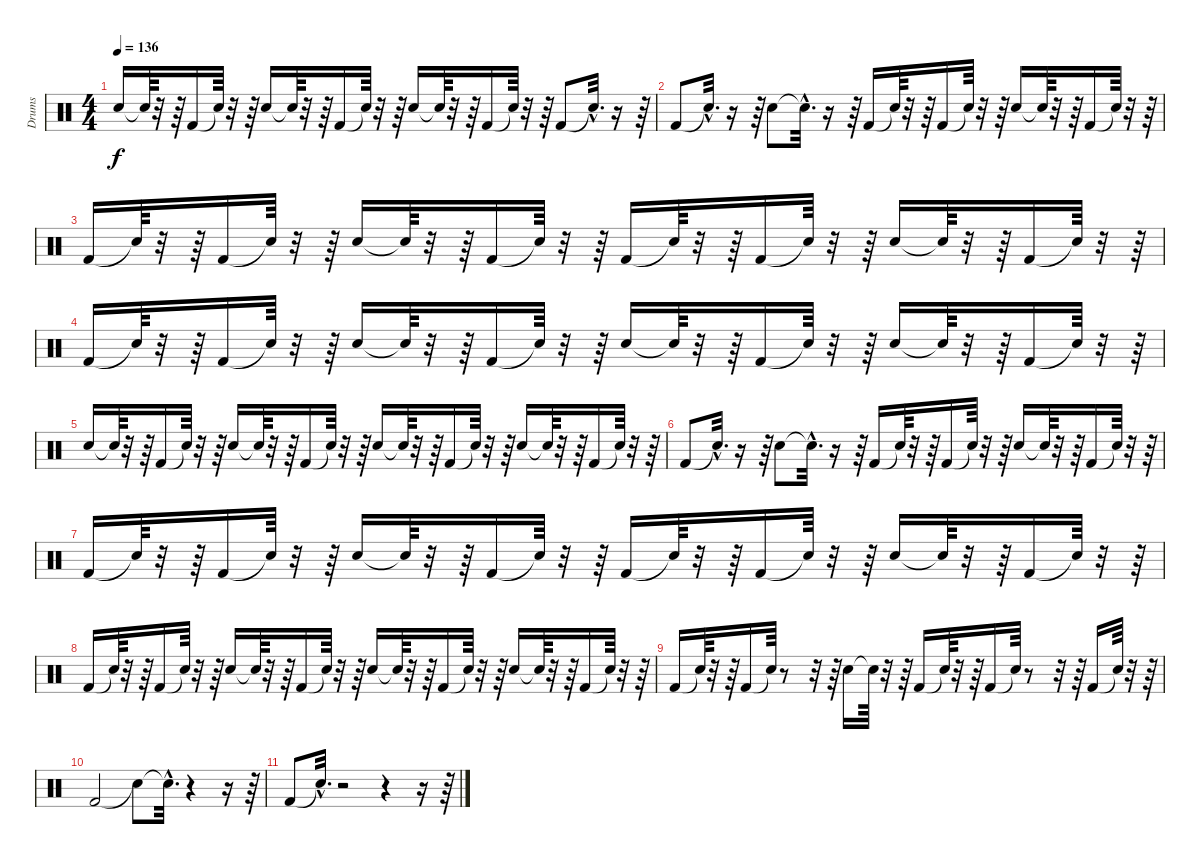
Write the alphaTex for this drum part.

\track ("Drums" "Drums") {instrument percussion}
\staff {score}
\articulation defaults
\ts (4 4)
\tempo 136
\clef neutral
\ks c "Snare (hit) 2".16{dy f} "Snare (hit)"{t}.64
r.32 r.64 "Kick (hit) 2".16 "Snare (hit)"{t}.64 r.32 r.64 "Snare (hit) 2".16 "Snare (hit)"{t}.64 r.32 r.64 "Kick (hit) 2".16 "Snare (hit)"{t}.64 r.32 r.64 "Snare (hit) 2".16 "Snare (hit)"{t}.64 r.32 r.64 "Kick (hit) 2".16 "Snare (hit)"{t}.64 r.32 r.64 "Kick (hit) 2".8 "Snare (hit)"{hac t}.32{d} r.16 r.64 |
"Kick (hit) 2".8 "Snare (hit)"{hac t}.32{d} r.16 r.64 "Snare (hit) 2".8 "Snare (hit)"{hac t}.32{d} r.16 r.64 "Kick (hit) 2".16 "Snare (hit)"{t}.64 r.32 r.64 "Kick (hit) 2".16 "Snare (hit)"{t}.64 r.32 r.64 "Snare (hit) 2".16 "Snare (hit)"{t}.64 r.32 r.64 "Kick (hit) 2".16 "Snare (hit)"{t}.64 r.32 r.64 |
"Kick (hit) 2".16 "Snare (hit)"{t}.64 r.32 r.64 "Kick (hit) 2".16 "Snare (hit)"{t}.64 r.32 r.64 "Snare (hit) 2".16 "Snare (hit)"{t}.64 r.32 r.64 "Kick (hit) 2".16 "Snare (hit)"{t}.64 r.32 r.64 "Kick (hit) 2".16 "Snare (hit)"{t}.64 r.32 r.64 "Kick (hit) 2".16 "Snare (hit)"{t}.64 r.32 r.64 "Snare (hit) 2".16 "Snare (hit)"{t}.64 r.32 r.64 "Kick (hit) 2".16 "Snare (hit)"{t}.64 r.32 r.64 |
"Kick (hit) 2".16 "Snare (hit)"{t}.64 r.32 r.64 "Kick (hit) 2".16 "Snare (hit)"{t}.64 r.32 r.64 "Snare (hit) 2".16 "Snare (hit)"{t}.64 r.32 r.64 "Kick (hit) 2".16 "Snare (hit)"{t}.64 r.32 r.64 "Snare (hit) 2".16 "Snare (hit)"{t}.64 r.32 r.64 "Kick (hit) 2".16 "Snare (hit)"{t}.64 r.32 r.64 "Snare (hit) 2".16 "Snare (hit)"{t}.64 r.32 r.64 "Kick (hit) 2".16 "Snare (hit)"{t}.64 r.32 r.64 |
"Snare (hit) 2".16 "Snare (hit)"{t}.64 r.32 r.64 "Kick (hit) 2".16 "Snare (hit)"{t}.64 r.32 r.64 "Snare (hit) 2".16 "Snare (hit)"{t}.64 r.32 r.64 "Kick (hit) 2".16 "Snare (hit)"{t}.64 r.32 r.64 "Snare (hit) 2".16 "Snare (hit)"{t}.64 r.32 r.64 "Kick (hit) 2".16 "Snare (hit)"{t}.64 r.32 r.64 "Snare (hit) 2".16 "Snare (hit)"{t}.64 r.32 r.64 "Kick (hit) 2".16 "Snare (hit)"{t}.64 r.32 r.64 |
"Kick (hit) 2".8 "Snare (hit)"{hac t}.32{d} r.16 r.64 "Snare (hit) 2".8 "Snare (hit)"{hac t}.32{d} r.16 r.64 "Kick (hit) 2".16 "Snare (hit)"{t}.64 r.32 r.64 "Kick (hit) 2".16 "Snare (hit)"{t}.64 r.32 r.64 "Snare (hit) 2".16 "Snare (hit)"{t}.64 r.32 r.64 "Kick (hit) 2".16 "Snare (hit)"{t}.64 r.32 r.64 |
"Kick (hit) 2".16 "Snare (hit)"{t}.64 r.32 r.64 "Kick (hit) 2".16 "Snare (hit)"{t}.64 r.32 r.64 "Snare (hit) 2".16 "Snare (hit)"{t}.64 r.32 r.64 "Kick (hit) 2".16 "Snare (hit)"{t}.64 r.32 r.64 "Kick (hit) 2".16 "Snare (hit)"{t}.64 r.32 r.64 "Kick (hit) 2".16 "Snare (hit)"{t}.64 r.32 r.64 "Snare (hit) 2".16 "Snare (hit)"{t}.64 r.32 r.64 "Kick (hit) 2".16 "Snare (hit)"{t}.64 r.32 r.64 |
"Kick (hit) 2".16 "Snare (hit)"{t}.64 r.32 r.64 "Kick (hit) 2".16 "Snare (hit)"{t}.64 r.32 r.64 "Snare (hit) 2".16 "Snare (hit)"{t}.64 r.32 r.64 "Kick (hit) 2".16 "Snare (hit)"{t}.64 r.32 r.64 "Snare (hit) 2".16 "Snare (hit)"{t}.64 r.32 r.64 "Kick (hit) 2".16 "Snare (hit)"{t}.64 r.32 r.64 "Snare (hit) 2".16 "Snare (hit)"{t}.64 r.32 r.64 "Kick (hit) 2".16 "Snare (hit)"{t}.64 r.32 r.64 |
"Kick (hit) 2".16 "Snare (hit)"{t}.64 r.32 r.64 "Kick (hit) 2".16 "Snare (hit)"{t}.64 r.8 r.32 r.64 "Snare (hit) 2".16 "Snare (hit)"{t}.64 r.32 r.64 "Kick (hit) 2".16 "Snare (hit)"{t}.64 r.32 r.64 "Kick (hit) 2".16 "Snare (hit)"{t}.64 r.8 r.32 r.64 "Kick (hit) 2".16 "Snare (hit)"{t}.64 r.32 r.64 |
"Kick (hit) 2".2 "Snare (hit)"{t}.8 "Snare (hit)"{hac t}.32{d} r.4 r.16 r.64 |
"Kick (hit) 2".8 "Snare (hit)"{hac t}.32{d} r.2 r.4 r.16 r.64
